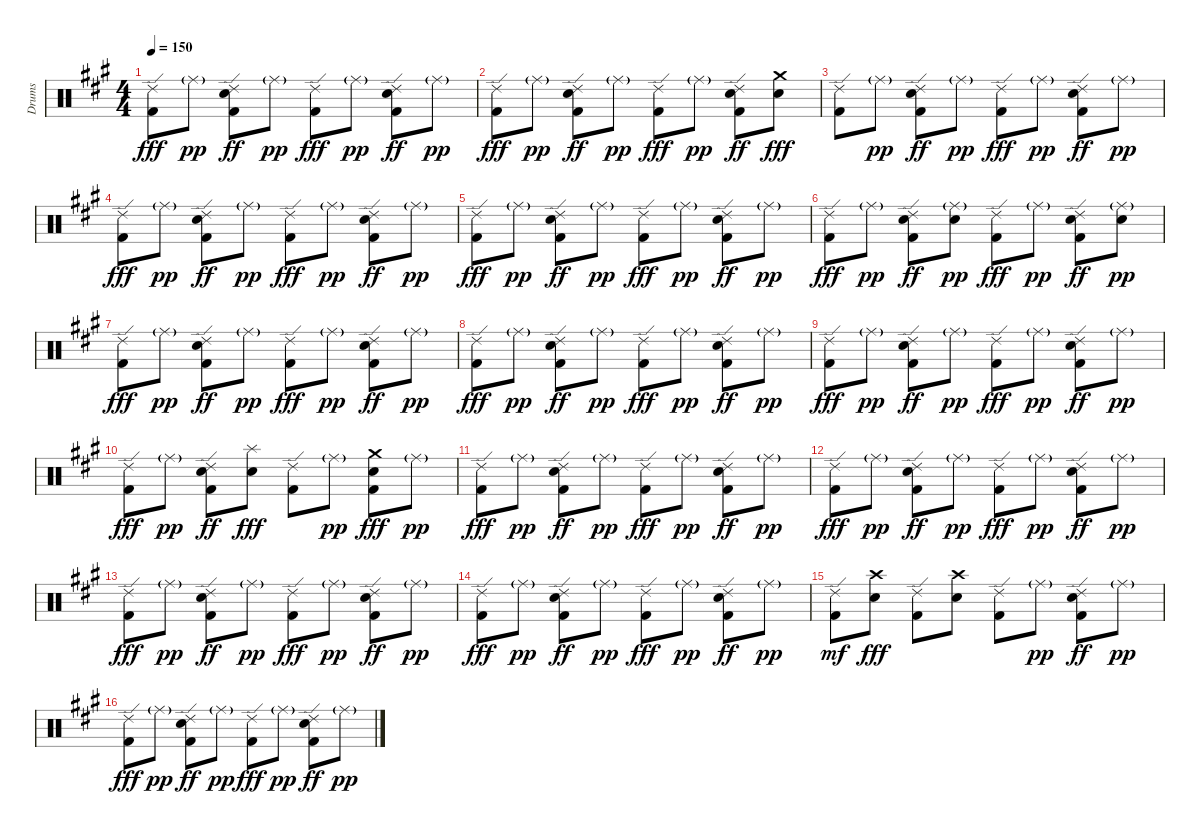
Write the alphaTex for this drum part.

\track ("Drums" "Drums") {instrument percussion}
\staff {score}
\articulation defaults
\ts (4 4)
\tempo 150
\clef neutral
\ks a
("Kick (hit) 2" "Ride (edge) 2").8{dy fff} "Ride (middle)"{g}.8{dy pp} ("Kick (hit) 2" "Electric Snare (hit)" "Ride (edge) 2").8{dy ff} "Ride (middle)"{g}.8{dy pp} ("Kick (hit) 2" "Ride (edge) 2").8{dy fff} "Ride (middle)"{g}.8{dy pp} ("Kick (hit) 2" "Electric Snare (hit)" "Ride (edge) 2").8{dy ff} "Ride (middle)"{g}.8{dy pp} |
("Kick (hit) 2" "Ride (edge) 2").8{dy fff} "Ride (middle)"{g}.8{dy pp} ("Kick (hit) 2" "Electric Snare (hit)" "Ride (edge) 2").8{dy ff} "Ride (middle)"{g}.8{dy pp} ("Kick (hit) 2" "Ride (edge) 2").8{dy fff} "Ride (middle)"{g}.8{dy pp} ("Kick (hit) 2" "Electric Snare (hit)" "Ride (edge) 2").8{dy ff} ("Electric Snare (hit)" "Crash medium (hit)").8{dy fff} |
("Kick (hit) 2" "Ride (edge) 2").8 "Ride (middle)"{g}.8{dy pp} ("Kick (hit) 2" "Electric Snare (hit)" "Ride (edge) 2").8{dy ff} "Ride (middle)"{g}.8{dy pp} ("Kick (hit) 2" "Ride (edge) 2").8{dy fff} "Ride (middle)"{g}.8{dy pp} ("Kick (hit) 2" "Electric Snare (hit)" "Ride (edge) 2").8{dy ff} "Ride (middle)"{g}.8{dy pp} |
("Kick (hit) 2" "Ride (edge) 2").8{dy fff} "Ride (middle)"{g}.8{dy pp} ("Kick (hit) 2" "Electric Snare (hit)" "Ride (edge) 2").8{dy ff} "Ride (middle)"{g}.8{dy pp} ("Kick (hit) 2" "Ride (edge) 2").8{dy fff} "Ride (middle)"{g}.8{dy pp} ("Kick (hit) 2" "Electric Snare (hit)" "Ride (edge) 2").8{dy ff} "Ride (middle)"{g}.8{dy pp} |
("Kick (hit) 2" "Ride (edge) 2").8{dy fff} "Ride (middle)"{g}.8{dy pp} ("Kick (hit) 2" "Electric Snare (hit)" "Ride (edge) 2").8{dy ff} "Ride (middle)"{g}.8{dy pp} ("Kick (hit) 2" "Ride (edge) 2").8{dy fff} "Ride (middle)"{g}.8{dy pp} ("Kick (hit) 2" "Electric Snare (hit)" "Ride (edge) 2").8{dy ff} "Ride (middle)"{g}.8{dy pp} |
("Kick (hit) 2" "Ride (edge) 2").8{dy fff} "Ride (middle)"{g}.8{dy pp} ("Kick (hit) 2" "Electric Snare (hit)" "Ride (edge) 2").8{dy ff} ("Electric Snare (hit)" "Ride (middle)"{g}).8{dy pp} ("Kick (hit) 2" "Ride (edge) 2").8{dy fff} "Ride (middle)"{g}.8{dy pp} ("Kick (hit) 2" "Electric Snare (hit)" "Ride (edge) 2").8{dy ff} ("Electric Snare (hit)" "Ride (middle)"{g}).8{dy pp} |
("Kick (hit) 2" "Ride (edge) 2").8{dy fff} "Ride (middle)"{g}.8{dy pp} ("Kick (hit) 2" "Electric Snare (hit)" "Ride (edge) 2").8{dy ff} "Ride (middle)"{g}.8{dy pp} ("Kick (hit) 2" "Ride (edge) 2").8{dy fff} "Ride (middle)"{g}.8{dy pp} ("Kick (hit) 2" "Electric Snare (hit)" "Ride (edge) 2").8{dy ff} "Ride (middle)"{g}.8{dy pp} |
("Kick (hit) 2" "Ride (edge) 2").8{dy fff} "Ride (middle)"{g}.8{dy pp} ("Kick (hit) 2" "Electric Snare (hit)" "Ride (edge) 2").8{dy ff} "Ride (middle)"{g}.8{dy pp} ("Kick (hit) 2" "Ride (edge) 2").8{dy fff} "Ride (middle)"{g}.8{dy pp} ("Kick (hit) 2" "Electric Snare (hit)" "Ride (edge) 2").8{dy ff} "Ride (middle)"{g}.8{dy pp} |
("Kick (hit) 2" "Ride (edge) 2").8{dy fff} "Ride (middle)"{g}.8{dy pp} ("Kick (hit) 2" "Electric Snare (hit)" "Ride (edge) 2").8{dy ff} "Ride (middle)"{g}.8{dy pp} ("Kick (hit) 2" "Ride (edge) 2").8{dy fff} "Ride (middle)"{g}.8{dy pp} ("Kick (hit) 2" "Electric Snare (hit)" "Ride (edge) 2").8{dy ff} "Ride (middle)"{g}.8{dy pp} |
("Kick (hit) 2" "Ride (edge) 2").8{dy fff} "Ride (middle)"{g}.8{dy pp} ("Kick (hit) 2" "Electric Snare (hit)" "Ride (edge) 2").8{dy ff} ("Electric Snare (hit)" "Splash (hit)").8{dy fff} ("Kick (hit) 2" "Ride (edge) 2").8 "Ride (middle)"{g}.8{dy pp} ("Kick (hit) 2" "Electric Snare (hit)" "Crash medium (hit)").8{dy fff} "Ride (middle)"{g}.8{dy pp} |
("Kick (hit) 2" "Ride (edge) 2").8{dy fff} "Ride (middle)"{g}.8{dy pp} ("Kick (hit) 2" "Electric Snare (hit)" "Ride (edge) 2").8{dy ff} "Ride (middle)"{g}.8{dy pp} ("Kick (hit) 2" "Ride (edge) 2").8{dy fff} "Ride (middle)"{g}.8{dy pp} ("Kick (hit) 2" "Electric Snare (hit)" "Ride (edge) 2").8{dy ff} "Ride (middle)"{g}.8{dy pp} |
("Kick (hit) 2" "Ride (edge) 2").8{dy fff} "Ride (middle)"{g}.8{dy pp} ("Kick (hit) 2" "Electric Snare (hit)" "Ride (edge) 2").8{dy ff} "Ride (middle)"{g}.8{dy pp} ("Kick (hit) 2" "Ride (edge) 2").8{dy fff} "Ride (middle)"{g}.8{dy pp} ("Kick (hit) 2" "Electric Snare (hit)" "Ride (edge) 2").8{dy ff} "Ride (middle)"{g}.8{dy pp} |
("Kick (hit) 2" "Ride (edge) 2").8{dy fff} "Ride (middle)"{g}.8{dy pp} ("Kick (hit) 2" "Electric Snare (hit)" "Ride (edge) 2").8{dy ff} "Ride (middle)"{g}.8{dy pp} ("Kick (hit) 2" "Ride (edge) 2").8{dy fff} "Ride (middle)"{g}.8{dy pp} ("Kick (hit) 2" "Electric Snare (hit)" "Ride (edge) 2").8{dy ff} "Ride (middle)"{g}.8{dy pp} |
("Kick (hit) 2" "Ride (edge) 2").8{dy fff} "Ride (middle)"{g}.8{dy pp} ("Kick (hit) 2" "Electric Snare (hit)" "Ride (edge) 2").8{dy ff} "Ride (middle)"{g}.8{dy pp} ("Kick (hit) 2" "Ride (edge) 2").8{dy fff} "Ride (middle)"{g}.8{dy pp} ("Kick (hit) 2" "Electric Snare (hit)" "Ride (edge) 2").8{dy ff} "Ride (middle)"{g}.8{dy pp} |
("Kick (hit) 2" "Ride (edge) 2").8{dy mf} ("Electric Snare (hit)" "Crash high (hit)").8{dy fff} ("Kick (hit) 2" "Ride (edge) 2").8 ("Electric Snare (hit)" "Crash high (hit)").8 ("Kick (hit) 2" "Ride (edge) 2").8 "Ride (middle)"{g}.8{dy pp} ("Kick (hit) 2" "Electric Snare (hit)" "Ride (edge) 2").8{dy ff} "Ride (middle)"{g}.8{dy pp} |
("Kick (hit) 2" "Ride (edge) 2").8{dy fff} "Ride (middle)"{g}.8{dy pp} ("Kick (hit) 2" "Electric Snare (hit)" "Ride (edge) 2").8{dy ff} "Ride (middle)"{g}.8{dy pp} ("Kick (hit) 2" "Ride (edge) 2").8{dy fff} "Ride (middle)"{g}.8{dy pp} ("Kick (hit) 2" "Electric Snare (hit)" "Ride (edge) 2").8{dy ff} "Ride (middle)"{g}.8{dy pp}
